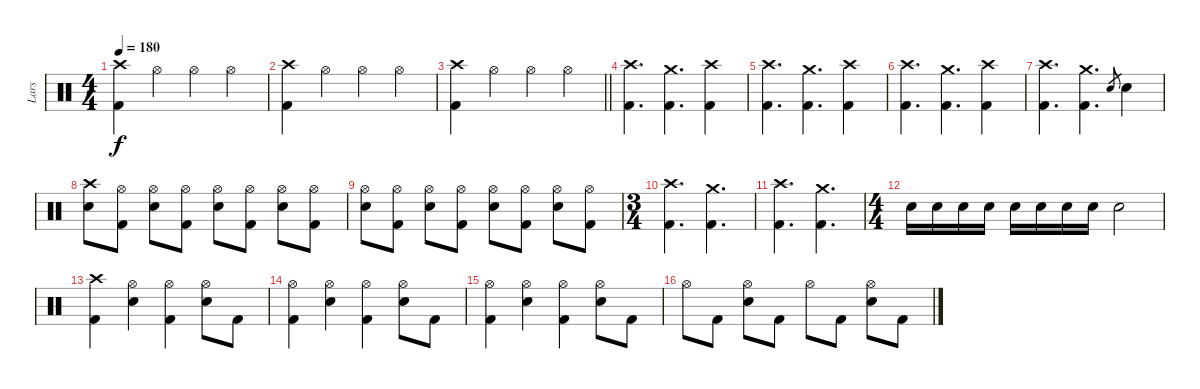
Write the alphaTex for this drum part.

\track ("Lars" "Lars") {instrument percussion}
\staff {score}
\articulation defaults
\ts (4 4)
\tempo 180
\clef neutral
\ks c
("Crash high (hit)" "Kick (hit) 2").4{dy f} "Hi-Hat (open)".4 "Hi-Hat (open)".4 "Hi-Hat (open)".4 |
("Crash high (hit)" "Kick (hit) 2").4 "Hi-Hat (open)".4 "Hi-Hat (open)".4 "Hi-Hat (open)".4 |
\barLineRight lightlight
("Crash high (hit)" "Kick (hit) 2").4 "Hi-Hat (open)".4 "Hi-Hat (open)".4 "Hi-Hat (open)".4 |
\section ("" "")
("Crash high (hit)" "Kick (hit) 2").4{d} ("Crash medium (hit)" "Kick (hit) 2").4{d} ("Crash high (hit)" "Kick (hit) 2").4 |
("Crash high (hit)" "Kick (hit) 2").4{d} ("Crash medium (hit)" "Kick (hit) 2").4{d} ("Crash high (hit)" "Kick (hit) 2").4 |
("Crash high (hit)" "Kick (hit) 2").4{d} ("Crash medium (hit)" "Kick (hit) 2").4{d} ("Crash high (hit)" "Kick (hit) 2").4 |
("Crash high (hit)" "Kick (hit) 2").4{d} ("Crash medium (hit)" "Kick (hit) 2").4{d} "Electric Snare (hit)".8{gr} "Electric Snare (hit)".4 |
("Crash high (hit)" "Electric Snare (hit)").8 ("Hi-Hat (open)" "Kick (hit) 2").8 ("Hi-Hat (open)" "Electric Snare (hit)").8 ("Hi-Hat (open)" "Kick (hit) 2").8 ("Hi-Hat (open)" "Electric Snare (hit)").8 ("Hi-Hat (open)" "Kick (hit) 2").8 ("Hi-Hat (open)" "Electric Snare (hit)").8 ("Hi-Hat (open)" "Kick (hit) 2").8 |
("Hi-Hat (open)" "Electric Snare (hit)").8 ("Hi-Hat (open)" "Kick (hit) 2").8 ("Hi-Hat (open)" "Electric Snare (hit)").8 ("Hi-Hat (open)" "Kick (hit) 2").8 ("Hi-Hat (open)" "Electric Snare (hit)").8 ("Hi-Hat (open)" "Kick (hit) 2").8 ("Hi-Hat (open)" "Electric Snare (hit)").8 ("Hi-Hat (open)" "Kick (hit) 2").8 |
\ts (3 4)
("Crash high (hit)" "Kick (hit) 2").4{d} ("Crash medium (hit)" "Kick (hit) 2").4{d} |
("Crash high (hit)" "Kick (hit) 2").4{d} ("Crash medium (hit)" "Kick (hit) 2").4{d} |
\ts (4 4)
"Electric Snare (hit)".16 "Electric Snare (hit)".16 "Electric Snare (hit)".16 "Electric Snare (hit)".16 "Electric Snare (hit)".16 "Electric Snare (hit)".16 "Electric Snare (hit)".16 "Electric Snare (hit)".16 "Electric Snare (hit)".2 |
("Crash high (hit)" "Kick (hit) 2").4 ("Hi-Hat (open)" "Electric Snare (hit)").4 ("Hi-Hat (open)" "Kick (hit) 2").4 ("Hi-Hat (open)" "Electric Snare (hit)").8 "Kick (hit) 2".8 |
("Hi-Hat (open)" "Kick (hit) 2").4 ("Hi-Hat (open)" "Electric Snare (hit)").4 ("Hi-Hat (open)" "Kick (hit) 2").4 ("Hi-Hat (open)" "Electric Snare (hit)").8 "Kick (hit) 2".8 |
("Hi-Hat (open)" "Kick (hit) 2").4 ("Hi-Hat (open)" "Electric Snare (hit)").4 ("Hi-Hat (open)" "Kick (hit) 2").4 ("Hi-Hat (open)" "Electric Snare (hit)").8 "Kick (hit) 2".8 |
"Hi-Hat (open)".8 "Kick (hit) 2".8 ("Hi-Hat (open)" "Electric Snare (hit)").8 "Kick (hit) 2".8 "Hi-Hat (open)".8 "Kick (hit) 2".8 ("Hi-Hat (open)" "Electric Snare (hit)").8 "Kick (hit) 2".8
